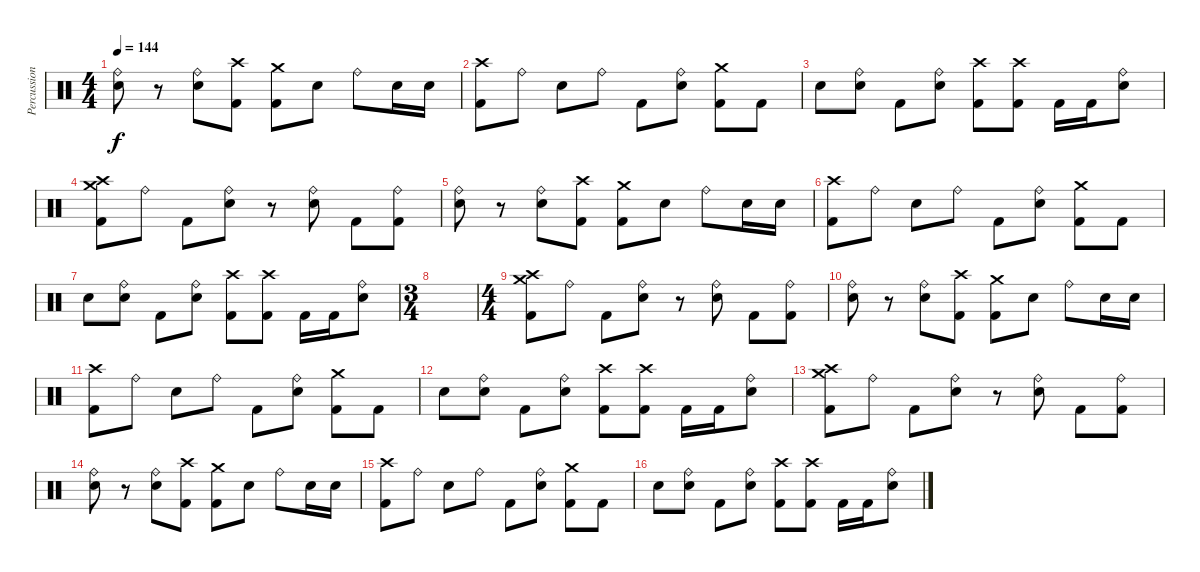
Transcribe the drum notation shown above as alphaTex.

\track ("Percussion" "Percussion") {instrument percussion}
\staff {score}
\articulation defaults
\ts (4 4)
\tempo 144
\clef neutral
\ks c
("Ride (bell)" "Electric Snare (hit)").8{dy f} r.8 ("Ride (bell)" "Electric Snare (hit)").8 ("Crash high (hit)" "Kick (hit) 2").8 ("Crash medium (hit)" "Kick (hit) 2").8 "Electric Snare (hit)".8 "Ride (bell)".8 "Electric Snare (hit)".16 "Electric Snare (hit)".16 |
("Crash high (hit)" "Kick (hit) 2").8 "Ride (bell)".8 "Electric Snare (hit)".8 "Ride (bell)".8 "Kick (hit) 2".8 ("Ride (bell)" "Electric Snare (hit)").8 ("Crash medium (hit)" "Kick (hit) 2").8 "Kick (hit) 2".8 |
"Electric Snare (hit)".8 ("Ride (bell)" "Electric Snare (hit)").8 "Kick (hit) 2".8 ("Ride (bell)" "Electric Snare (hit)").8 ("Crash high (hit)" "Kick (hit) 2").8 ("Crash high (hit)" "Kick (hit) 2").8 "Kick (hit) 2".16 "Kick (hit) 2".16 ("Ride (bell)" "Electric Snare (hit)").8 |
("Crash medium (hit)" "Crash high (hit)" "Kick (hit) 2").8 "Ride (bell)".8 "Kick (hit) 2".8 ("Ride (bell)" "Electric Snare (hit)").8 r.8 ("Ride (bell)" "Electric Snare (hit)").8 "Kick (hit) 2".8 ("Ride (bell)" "Kick (hit) 2").8 |
("Ride (bell)" "Electric Snare (hit)").8 r.8 ("Ride (bell)" "Electric Snare (hit)").8 ("Crash high (hit)" "Kick (hit) 2").8 ("Crash medium (hit)" "Kick (hit) 2").8 "Electric Snare (hit)".8 "Ride (bell)".8 "Electric Snare (hit)".16 "Electric Snare (hit)".16 |
("Crash high (hit)" "Kick (hit) 2").8 "Ride (bell)".8 "Electric Snare (hit)".8 "Ride (bell)".8 "Kick (hit) 2".8 ("Ride (bell)" "Electric Snare (hit)").8 ("Crash medium (hit)" "Kick (hit) 2").8 "Kick (hit) 2".8 |
"Electric Snare (hit)".8 ("Ride (bell)" "Electric Snare (hit)").8 "Kick (hit) 2".8 ("Ride (bell)" "Electric Snare (hit)").8 ("Crash high (hit)" "Kick (hit) 2").8 ("Crash high (hit)" "Kick (hit) 2").8 "Kick (hit) 2".16 "Kick (hit) 2".16 ("Ride (bell)" "Electric Snare (hit)").8 |
\ts (3 4)
|
\ts (4 4)
("Crash medium (hit)" "Crash high (hit)" "Kick (hit) 2").8 "Ride (bell)".8 "Kick (hit) 2".8 ("Ride (bell)" "Electric Snare (hit)").8 r.8 ("Ride (bell)" "Electric Snare (hit)").8 "Kick (hit) 2".8 ("Ride (bell)" "Kick (hit) 2").8 |
("Ride (bell)" "Electric Snare (hit)").8 r.8 ("Ride (bell)" "Electric Snare (hit)").8 ("Crash high (hit)" "Kick (hit) 2").8 ("Crash medium (hit)" "Kick (hit) 2").8 "Electric Snare (hit)".8 "Ride (bell)".8 "Electric Snare (hit)".16 "Electric Snare (hit)".16 |
("Crash high (hit)" "Kick (hit) 2").8 "Ride (bell)".8 "Electric Snare (hit)".8 "Ride (bell)".8 "Kick (hit) 2".8 ("Ride (bell)" "Electric Snare (hit)").8 ("Crash medium (hit)" "Kick (hit) 2").8 "Kick (hit) 2".8 |
"Electric Snare (hit)".8 ("Ride (bell)" "Electric Snare (hit)").8 "Kick (hit) 2".8 ("Ride (bell)" "Electric Snare (hit)").8 ("Crash high (hit)" "Kick (hit) 2").8 ("Crash high (hit)" "Kick (hit) 2").8 "Kick (hit) 2".16 "Kick (hit) 2".16 ("Ride (bell)" "Electric Snare (hit)").8 |
("Crash medium (hit)" "Crash high (hit)" "Kick (hit) 2").8 "Ride (bell)".8 "Kick (hit) 2".8 ("Ride (bell)" "Electric Snare (hit)").8 r.8 ("Ride (bell)" "Electric Snare (hit)").8 "Kick (hit) 2".8 ("Ride (bell)" "Kick (hit) 2").8 |
("Ride (bell)" "Electric Snare (hit)").8 r.8 ("Ride (bell)" "Electric Snare (hit)").8 ("Crash high (hit)" "Kick (hit) 2").8 ("Crash medium (hit)" "Kick (hit) 2").8 "Electric Snare (hit)".8 "Ride (bell)".8 "Electric Snare (hit)".16 "Electric Snare (hit)".16 |
("Crash high (hit)" "Kick (hit) 2").8 "Ride (bell)".8 "Electric Snare (hit)".8 "Ride (bell)".8 "Kick (hit) 2".8 ("Ride (bell)" "Electric Snare (hit)").8 ("Crash medium (hit)" "Kick (hit) 2").8 "Kick (hit) 2".8 |
"Electric Snare (hit)".8 ("Ride (bell)" "Electric Snare (hit)").8 "Kick (hit) 2".8 ("Ride (bell)" "Electric Snare (hit)").8 ("Crash high (hit)" "Kick (hit) 2").8 ("Crash high (hit)" "Kick (hit) 2").8 "Kick (hit) 2".16 "Kick (hit) 2".16 ("Ride (bell)" "Electric Snare (hit)").8
